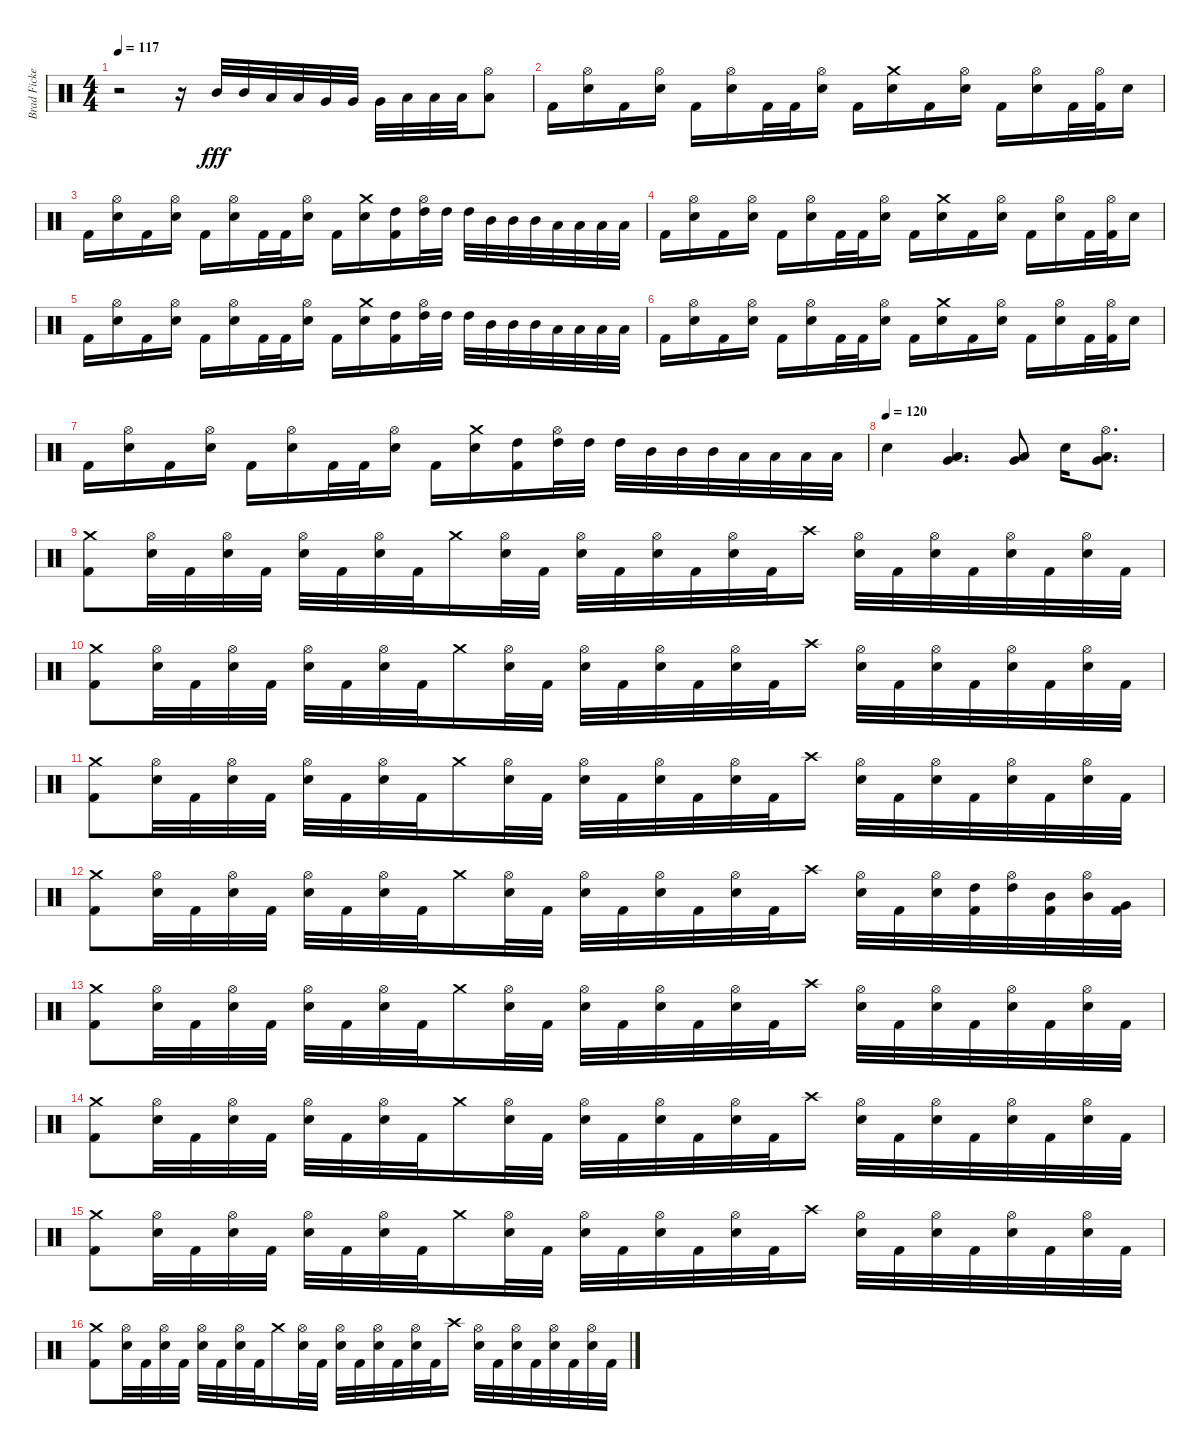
\track ("Brad Fickeisen" "Brad Ficke") {instrument percussion}
\staff {score}
\articulation defaults
\ts (4 4)
\tempo 117
\clef neutral
\ks c
r.2{dy f} r.16 "Mid Tom (hit)".32{dy fff} "Mid Tom (hit)".32 "Low Tom (hit)".32 "Low Tom (hit)".32 "Very Low Tom (hit)".32 "Very Low Tom (hit)".32 "Very Low Tom (hit)".32 "Low Floor Tom (hit)".32 "Low Floor Tom (hit)".32 "Low Floor Tom (hit)".32 ("Hi-Hat (open)" "Low Floor Tom (hit)").8 |
"Kick (hit) 2".16 ("Hi-Hat (open)" "Electric Snare (hit)").16 "Kick (hit) 2".16 ("Hi-Hat (open)" "Electric Snare (hit)").16 "Kick (hit) 2".16 ("Hi-Hat (open)" "Electric Snare (hit)").16 "Kick (hit) 2".32 "Kick (hit) 2".32 ("Hi-Hat (open)" "Electric Snare (hit)").16 "Kick (hit) 2".16 ("Crash medium (hit)" "Electric Snare (hit)").16 "Kick (hit) 2".16 ("Hi-Hat (open)" "Electric Snare (hit)").16 "Kick (hit) 2".16 ("Hi-Hat (open)" "Electric Snare (hit)").16 "Kick (hit) 2".32 ("Hi-Hat (open)" "Kick (hit) 2").32 "Electric Snare (hit)".16 |
"Kick (hit) 2".16 ("Hi-Hat (open)" "Electric Snare (hit)").16 "Kick (hit) 2".16 ("Hi-Hat (open)" "Electric Snare (hit)").16 "Kick (hit) 2".16 ("Hi-Hat (open)" "Electric Snare (hit)").16 "Kick (hit) 2".32 "Kick (hit) 2".32 ("Hi-Hat (open)" "Electric Snare (hit)").16 "Kick (hit) 2".16 ("Crash medium (hit)" "Electric Snare (hit)").16 ("High Tom (hit)" "Kick (hit) 2").16 ("Hi-Hat (open)" "High Tom (hit)").32 "High Tom (hit)".32 "High Tom (hit)".32 "Mid Tom (hit)".32 "Mid Tom (hit)".32 "Mid Tom (hit)".32 "Low Tom (hit)".32 "Low Tom (hit)".32 "Low Tom (hit)".32 "Low Tom (hit)".32 |
"Kick (hit) 2".16 ("Hi-Hat (open)" "Electric Snare (hit)").16 "Kick (hit) 2".16 ("Hi-Hat (open)" "Electric Snare (hit)").16 "Kick (hit) 2".16 ("Hi-Hat (open)" "Electric Snare (hit)").16 "Kick (hit) 2".32 "Kick (hit) 2".32 ("Hi-Hat (open)" "Electric Snare (hit)").16 "Kick (hit) 2".16 ("Crash medium (hit)" "Electric Snare (hit)").16 "Kick (hit) 2".16 ("Hi-Hat (open)" "Electric Snare (hit)").16 "Kick (hit) 2".16 ("Hi-Hat (open)" "Electric Snare (hit)").16 "Kick (hit) 2".32 ("Hi-Hat (open)" "Kick (hit) 2").32 "Electric Snare (hit)".16 |
"Kick (hit) 2".16 ("Hi-Hat (open)" "Electric Snare (hit)").16 "Kick (hit) 2".16 ("Hi-Hat (open)" "Electric Snare (hit)").16 "Kick (hit) 2".16 ("Hi-Hat (open)" "Electric Snare (hit)").16 "Kick (hit) 2".32 "Kick (hit) 2".32 ("Hi-Hat (open)" "Electric Snare (hit)").16 "Kick (hit) 2".16 ("Crash medium (hit)" "Electric Snare (hit)").16 ("High Tom (hit)" "Kick (hit) 2").16 ("Hi-Hat (open)" "High Tom (hit)").32 "High Tom (hit)".32 "High Tom (hit)".32 "Mid Tom (hit)".32 "Mid Tom (hit)".32 "Mid Tom (hit)".32 "Low Tom (hit)".32 "Low Tom (hit)".32 "Low Tom (hit)".32 "Low Tom (hit)".32 |
"Kick (hit) 2".16 ("Hi-Hat (open)" "Electric Snare (hit)").16 "Kick (hit) 2".16 ("Hi-Hat (open)" "Electric Snare (hit)").16 "Kick (hit) 2".16 ("Hi-Hat (open)" "Electric Snare (hit)").16 "Kick (hit) 2".32 "Kick (hit) 2".32 ("Hi-Hat (open)" "Electric Snare (hit)").16 "Kick (hit) 2".16 ("Crash medium (hit)" "Electric Snare (hit)").16 "Kick (hit) 2".16 ("Hi-Hat (open)" "Electric Snare (hit)").16 "Kick (hit) 2".16 ("Hi-Hat (open)" "Electric Snare (hit)").16 "Kick (hit) 2".32 ("Hi-Hat (open)" "Kick (hit) 2").32 "Electric Snare (hit)".16 |
"Kick (hit) 2".16 ("Hi-Hat (open)" "Electric Snare (hit)").16 "Kick (hit) 2".16 ("Hi-Hat (open)" "Electric Snare (hit)").16 "Kick (hit) 2".16 ("Hi-Hat (open)" "Electric Snare (hit)").16 "Kick (hit) 2".32 "Kick (hit) 2".32 ("Hi-Hat (open)" "Electric Snare (hit)").16 "Kick (hit) 2".16 ("Crash medium (hit)" "Electric Snare (hit)").16 ("High Tom (hit)" "Kick (hit) 2").16 ("Hi-Hat (open)" "High Tom (hit)").32 "High Tom (hit)".32 "High Tom (hit)".32 "Mid Tom (hit)".32 "Mid Tom (hit)".32 "Mid Tom (hit)".32 "Low Tom (hit)".32 "Low Tom (hit)".32 "Low Tom (hit)".32 "Low Tom (hit)".32 |
\tempo (120)
"Electric Snare (hit)".4 ("Low Tom (hit)" "Very Low Tom (hit)").4{d} ("Low Tom (hit)" "Very Low Tom (hit)").8 "Electric Snare (hit)".16 ("Hi-Hat (open)" "Low Tom (hit)" "Very Low Tom (hit)").8{d} |
("Crash medium (hit)" "Kick (hit) 2").8 ("Hi-Hat (open)" "Electric Snare (hit)").32 "Kick (hit) 2".32 ("Hi-Hat (open)" "Electric Snare (hit)").32 "Kick (hit) 2".32 ("Hi-Hat (open)" "Electric Snare (hit)").32 "Kick (hit) 2".32 ("Hi-Hat (open)" "Electric Snare (hit)").32 "Kick (hit) 2".32 "Crash medium (hit)".16 ("Hi-Hat (open)" "Electric Snare (hit)").32 "Kick (hit) 2".32 ("Hi-Hat (open)" "Electric Snare (hit)").32 "Kick (hit) 2".32 ("Hi-Hat (open)" "Electric Snare (hit)").32 "Kick (hit) 2".32 ("Hi-Hat (open)" "Electric Snare (hit)").32 "Kick (hit) 2".32 "Crash high (hit)".16 ("Hi-Hat (open)" "Electric Snare (hit)").32 "Kick (hit) 2".32 ("Hi-Hat (open)" "Electric Snare (hit)").32 "Kick (hit) 2".32 ("Hi-Hat (open)" "Electric Snare (hit)").32 "Kick (hit) 2".32 ("Hi-Hat (open)" "Electric Snare (hit)").32 "Kick (hit) 2".32 |
("Crash medium (hit)" "Kick (hit) 2").8 ("Hi-Hat (open)" "Electric Snare (hit)").32 "Kick (hit) 2".32 ("Hi-Hat (open)" "Electric Snare (hit)").32 "Kick (hit) 2".32 ("Hi-Hat (open)" "Electric Snare (hit)").32 "Kick (hit) 2".32 ("Hi-Hat (open)" "Electric Snare (hit)").32 "Kick (hit) 2".32 "Crash medium (hit)".16 ("Hi-Hat (open)" "Electric Snare (hit)").32 "Kick (hit) 2".32 ("Hi-Hat (open)" "Electric Snare (hit)").32 "Kick (hit) 2".32 ("Hi-Hat (open)" "Electric Snare (hit)").32 "Kick (hit) 2".32 ("Hi-Hat (open)" "Electric Snare (hit)").32 "Kick (hit) 2".32 "Crash high (hit)".16 ("Hi-Hat (open)" "Electric Snare (hit)").32 "Kick (hit) 2".32 ("Hi-Hat (open)" "Electric Snare (hit)").32 "Kick (hit) 2".32 ("Hi-Hat (open)" "Electric Snare (hit)").32 "Kick (hit) 2".32 ("Hi-Hat (open)" "Electric Snare (hit)").32 "Kick (hit) 2".32 |
("Crash medium (hit)" "Kick (hit) 2").8 ("Hi-Hat (open)" "Electric Snare (hit)").32 "Kick (hit) 2".32 ("Hi-Hat (open)" "Electric Snare (hit)").32 "Kick (hit) 2".32 ("Hi-Hat (open)" "Electric Snare (hit)").32 "Kick (hit) 2".32 ("Hi-Hat (open)" "Electric Snare (hit)").32 "Kick (hit) 2".32 "Crash medium (hit)".16 ("Hi-Hat (open)" "Electric Snare (hit)").32 "Kick (hit) 2".32 ("Hi-Hat (open)" "Electric Snare (hit)").32 "Kick (hit) 2".32 ("Hi-Hat (open)" "Electric Snare (hit)").32 "Kick (hit) 2".32 ("Hi-Hat (open)" "Electric Snare (hit)").32 "Kick (hit) 2".32 "Crash high (hit)".16 ("Hi-Hat (open)" "Electric Snare (hit)").32 "Kick (hit) 2".32 ("Hi-Hat (open)" "Electric Snare (hit)").32 "Kick (hit) 2".32 ("Hi-Hat (open)" "Electric Snare (hit)").32 "Kick (hit) 2".32 ("Hi-Hat (open)" "Electric Snare (hit)").32 "Kick (hit) 2".32 |
("Crash medium (hit)" "Kick (hit) 2").8 ("Hi-Hat (open)" "Electric Snare (hit)").32 "Kick (hit) 2".32 ("Hi-Hat (open)" "Electric Snare (hit)").32 "Kick (hit) 2".32 ("Hi-Hat (open)" "Electric Snare (hit)").32 "Kick (hit) 2".32 ("Hi-Hat (open)" "Electric Snare (hit)").32 "Kick (hit) 2".32 "Crash medium (hit)".16 ("Hi-Hat (open)" "Electric Snare (hit)").32 "Kick (hit) 2".32 ("Hi-Hat (open)" "Electric Snare (hit)").32 "Kick (hit) 2".32 ("Hi-Hat (open)" "Electric Snare (hit)").32 "Kick (hit) 2".32 ("Hi-Hat (open)" "Electric Snare (hit)").32 "Kick (hit) 2".32 "Crash high (hit)".16 ("Hi-Hat (open)" "Electric Snare (hit)").32 "Kick (hit) 2".32 ("Hi-Hat (open)" "Electric Snare (hit)").32 ("High Tom (hit)" "Kick (hit) 2").32 ("Hi-Hat (open)" "High Tom (hit)").32 ("Mid Tom (hit)" "Kick (hit) 2").32 ("Hi-Hat (open)" "Mid Tom (hit)").32 ("Very Low Tom (hit)" "Kick (hit) 2").32 |
("Crash medium (hit)" "Kick (hit) 2").8 ("Hi-Hat (open)" "Electric Snare (hit)").32 "Kick (hit) 2".32 ("Hi-Hat (open)" "Electric Snare (hit)").32 "Kick (hit) 2".32 ("Hi-Hat (open)" "Electric Snare (hit)").32 "Kick (hit) 2".32 ("Hi-Hat (open)" "Electric Snare (hit)").32 "Kick (hit) 2".32 "Crash medium (hit)".16 ("Hi-Hat (open)" "Electric Snare (hit)").32 "Kick (hit) 2".32 ("Hi-Hat (open)" "Electric Snare (hit)").32 "Kick (hit) 2".32 ("Hi-Hat (open)" "Electric Snare (hit)").32 "Kick (hit) 2".32 ("Hi-Hat (open)" "Electric Snare (hit)").32 "Kick (hit) 2".32 "Crash high (hit)".16 ("Hi-Hat (open)" "Electric Snare (hit)").32 "Kick (hit) 2".32 ("Hi-Hat (open)" "Electric Snare (hit)").32 "Kick (hit) 2".32 ("Hi-Hat (open)" "Electric Snare (hit)").32 "Kick (hit) 2".32 ("Hi-Hat (open)" "Electric Snare (hit)").32 "Kick (hit) 2".32 |
("Crash medium (hit)" "Kick (hit) 2").8 ("Hi-Hat (open)" "Electric Snare (hit)").32 "Kick (hit) 2".32 ("Hi-Hat (open)" "Electric Snare (hit)").32 "Kick (hit) 2".32 ("Hi-Hat (open)" "Electric Snare (hit)").32 "Kick (hit) 2".32 ("Hi-Hat (open)" "Electric Snare (hit)").32 "Kick (hit) 2".32 "Crash medium (hit)".16 ("Hi-Hat (open)" "Electric Snare (hit)").32 "Kick (hit) 2".32 ("Hi-Hat (open)" "Electric Snare (hit)").32 "Kick (hit) 2".32 ("Hi-Hat (open)" "Electric Snare (hit)").32 "Kick (hit) 2".32 ("Hi-Hat (open)" "Electric Snare (hit)").32 "Kick (hit) 2".32 "Crash high (hit)".16 ("Hi-Hat (open)" "Electric Snare (hit)").32 "Kick (hit) 2".32 ("Hi-Hat (open)" "Electric Snare (hit)").32 "Kick (hit) 2".32 ("Hi-Hat (open)" "Electric Snare (hit)").32 "Kick (hit) 2".32 ("Hi-Hat (open)" "Electric Snare (hit)").32 "Kick (hit) 2".32 |
("Crash medium (hit)" "Kick (hit) 2").8 ("Hi-Hat (open)" "Electric Snare (hit)").32 "Kick (hit) 2".32 ("Hi-Hat (open)" "Electric Snare (hit)").32 "Kick (hit) 2".32 ("Hi-Hat (open)" "Electric Snare (hit)").32 "Kick (hit) 2".32 ("Hi-Hat (open)" "Electric Snare (hit)").32 "Kick (hit) 2".32 "Crash medium (hit)".16 ("Hi-Hat (open)" "Electric Snare (hit)").32 "Kick (hit) 2".32 ("Hi-Hat (open)" "Electric Snare (hit)").32 "Kick (hit) 2".32 ("Hi-Hat (open)" "Electric Snare (hit)").32 "Kick (hit) 2".32 ("Hi-Hat (open)" "Electric Snare (hit)").32 "Kick (hit) 2".32 "Crash high (hit)".16 ("Hi-Hat (open)" "Electric Snare (hit)").32 "Kick (hit) 2".32 ("Hi-Hat (open)" "Electric Snare (hit)").32 "Kick (hit) 2".32 ("Hi-Hat (open)" "Electric Snare (hit)").32 "Kick (hit) 2".32 ("Hi-Hat (open)" "Electric Snare (hit)").32 "Kick (hit) 2".32 |
("Crash medium (hit)" "Kick (hit) 2").8 ("Hi-Hat (open)" "Electric Snare (hit)").32 "Kick (hit) 2".32 ("Hi-Hat (open)" "Electric Snare (hit)").32 "Kick (hit) 2".32 ("Hi-Hat (open)" "Electric Snare (hit)").32 "Kick (hit) 2".32 ("Hi-Hat (open)" "Electric Snare (hit)").32 "Kick (hit) 2".32 "Crash medium (hit)".16 ("Hi-Hat (open)" "Electric Snare (hit)").32 "Kick (hit) 2".32 ("Hi-Hat (open)" "Electric Snare (hit)").32 "Kick (hit) 2".32 ("Hi-Hat (open)" "Electric Snare (hit)").32 "Kick (hit) 2".32 ("Hi-Hat (open)" "Electric Snare (hit)").32 "Kick (hit) 2".32 "Crash high (hit)".16 ("Hi-Hat (open)" "Electric Snare (hit)").32 "Kick (hit) 2".32 ("Hi-Hat (open)" "Electric Snare (hit)").32 "Kick (hit) 2".32 ("Hi-Hat (open)" "Electric Snare (hit)").32 "Kick (hit) 2".32 ("Hi-Hat (open)" "Electric Snare (hit)").32 "Kick (hit) 2".32
